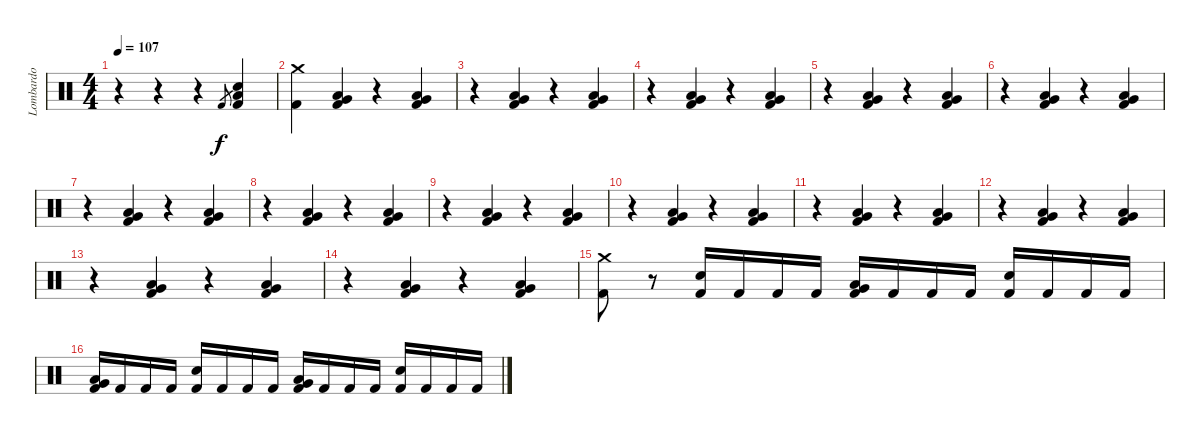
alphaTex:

\track ("Lombardo" "Lombardo") {instrument percussion}
\staff {score}
\articulation defaults
\ts (4 4)
\tempo 107
\clef neutral
\ks c
r.4{dy f} r.4 r.4 "Kick (hit) 2".8{gr} ("Low Floor Tom (hit)" "Snare (hit) 2" "Kick (hit) 2").4 |
("Crash medium (hit)" "Kick (hit) 2").4 ("Very Low Tom (hit)" "Low Floor Tom (hit)" "Kick (hit) 2").4 r.4 ("Very Low Tom (hit)" "Low Floor Tom (hit)" "Kick (hit) 2").4 |
r.4 ("Very Low Tom (hit)" "Low Floor Tom (hit)" "Kick (hit) 2").4 r.4 ("Very Low Tom (hit)" "Low Floor Tom (hit)" "Kick (hit) 2").4 |
r.4 ("Very Low Tom (hit)" "Low Floor Tom (hit)" "Kick (hit) 2").4 r.4 ("Very Low Tom (hit)" "Low Floor Tom (hit)" "Kick (hit) 2").4 |
r.4 ("Very Low Tom (hit)" "Low Floor Tom (hit)" "Kick (hit) 2").4 r.4 ("Very Low Tom (hit)" "Low Floor Tom (hit)" "Kick (hit) 2").4 |
r.4 ("Very Low Tom (hit)" "Low Floor Tom (hit)" "Kick (hit) 2").4 r.4 ("Very Low Tom (hit)" "Low Floor Tom (hit)" "Kick (hit) 2").4 |
r.4 ("Very Low Tom (hit)" "Low Floor Tom (hit)" "Kick (hit) 2").4 r.4 ("Very Low Tom (hit)" "Low Floor Tom (hit)" "Kick (hit) 2").4 |
r.4 ("Very Low Tom (hit)" "Low Floor Tom (hit)" "Kick (hit) 2").4 r.4 ("Very Low Tom (hit)" "Low Floor Tom (hit)" "Kick (hit) 2").4 |
r.4 ("Very Low Tom (hit)" "Low Floor Tom (hit)" "Kick (hit) 2").4 r.4 ("Very Low Tom (hit)" "Low Floor Tom (hit)" "Kick (hit) 2").4 |
r.4 ("Very Low Tom (hit)" "Low Floor Tom (hit)" "Kick (hit) 2").4 r.4 ("Very Low Tom (hit)" "Low Floor Tom (hit)" "Kick (hit) 2").4 |
r.4 ("Very Low Tom (hit)" "Low Floor Tom (hit)" "Kick (hit) 2").4 r.4 ("Very Low Tom (hit)" "Low Floor Tom (hit)" "Kick (hit) 2").4 |
r.4 ("Very Low Tom (hit)" "Low Floor Tom (hit)" "Kick (hit) 2").4 r.4 ("Very Low Tom (hit)" "Low Floor Tom (hit)" "Kick (hit) 2").4 |
r.4 ("Very Low Tom (hit)" "Low Floor Tom (hit)" "Kick (hit) 2").4 r.4 ("Very Low Tom (hit)" "Low Floor Tom (hit)" "Kick (hit) 2").4 |
r.4 ("Very Low Tom (hit)" "Low Floor Tom (hit)" "Kick (hit) 2").4 r.4 ("Very Low Tom (hit)" "Low Floor Tom (hit)" "Kick (hit) 2").4 |
("Crash medium (hit)" "Kick (hit) 2").8 r.8 ("Snare (hit) 2" "Kick (hit) 2").16 "Kick (hit) 2".16 "Kick (hit) 2".16 "Kick (hit) 2".16 ("Very Low Tom (hit)" "Low Floor Tom (hit)" "Kick (hit) 2").16 "Kick (hit) 2".16 "Kick (hit) 2".16 "Kick (hit) 2".16 ("Snare (hit) 2" "Kick (hit) 2").16 "Kick (hit) 2".16 "Kick (hit) 2".16 "Kick (hit) 2".16 |
("Very Low Tom (hit)" "Low Floor Tom (hit)" "Kick (hit) 2").16 "Kick (hit) 2".16 "Kick (hit) 2".16 "Kick (hit) 2".16 ("Snare (hit) 2" "Kick (hit) 2").16 "Kick (hit) 2".16 "Kick (hit) 2".16 "Kick (hit) 2".16 ("Very Low Tom (hit)" "Low Floor Tom (hit)" "Kick (hit) 2").16 "Kick (hit) 2".16 "Kick (hit) 2".16 "Kick (hit) 2".16 ("Snare (hit) 2" "Kick (hit) 2").16 "Kick (hit) 2".16 "Kick (hit) 2".16 "Kick (hit) 2".16
